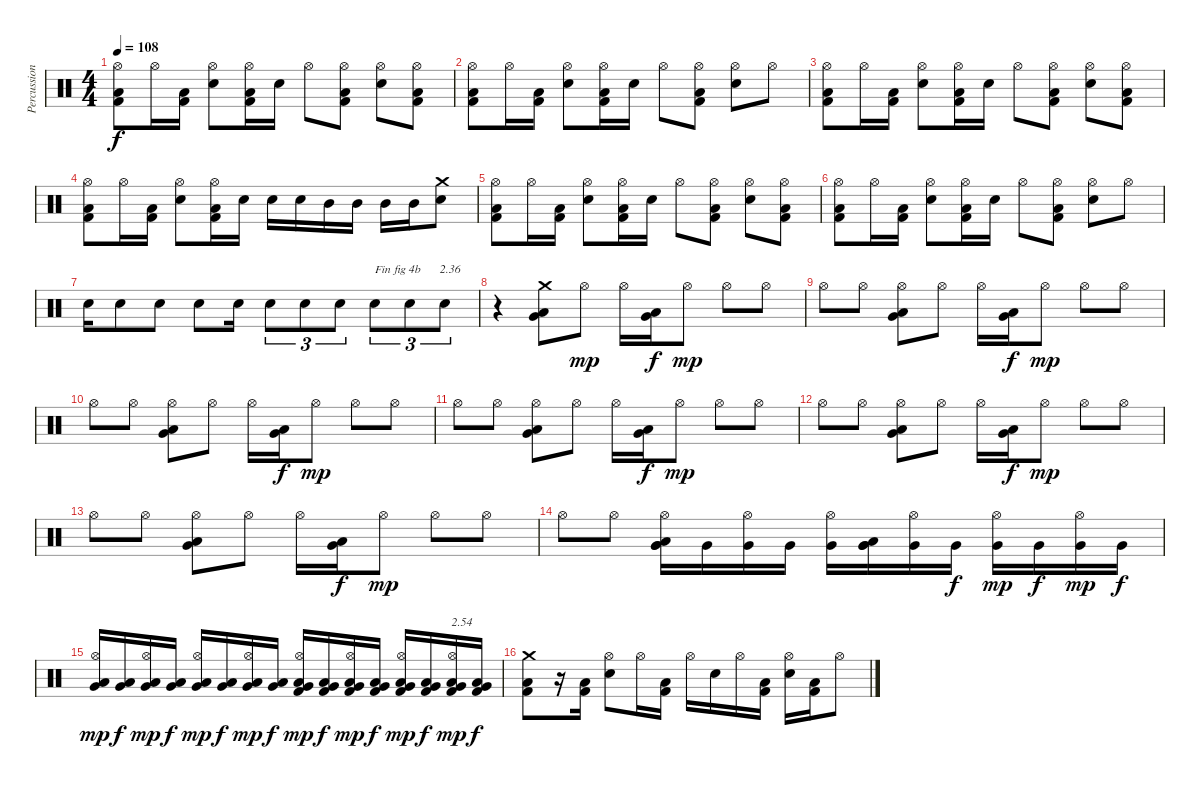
\track ("Percussions" "Percussion") {instrument percussion}
\staff {score}
\articulation defaults
\ts (4 4)
\tempo 108
\clef neutral
\ks c
("Kick (hit) 2" "Low Floor Tom (hit)" "Hi-Hat (open)").8{dy f} "Hi-Hat (open)".16 ("Kick (hit) 2" "Low Floor Tom (hit)").16 ("Snare (hit) 2" "Hi-Hat (open)").8 ("Kick (hit) 2" "Low Floor Tom (hit)" "Hi-Hat (open)").16 "Snare (hit) 2".16 "Hi-Hat (open)".8 ("Kick (hit) 2" "Low Floor Tom (hit)" "Hi-Hat (open)").8 ("Snare (hit) 2" "Hi-Hat (open)").8 ("Kick (hit) 2" "Low Floor Tom (hit)" "Hi-Hat (open)").8 |
("Kick (hit) 2" "Low Floor Tom (hit)" "Hi-Hat (open)").8 "Hi-Hat (open)".16 ("Kick (hit) 2" "Low Floor Tom (hit)").16 ("Snare (hit) 2" "Hi-Hat (open)").8 ("Kick (hit) 2" "Low Floor Tom (hit)" "Hi-Hat (open)").16 "Snare (hit) 2".16 "Hi-Hat (open)".8 ("Kick (hit) 2" "Low Floor Tom (hit)" "Hi-Hat (open)").8 ("Snare (hit) 2" "Hi-Hat (open)").8 "Hi-Hat (open)".8 |
("Kick (hit) 2" "Low Floor Tom (hit)" "Hi-Hat (open)").8 "Hi-Hat (open)".16 ("Kick (hit) 2" "Low Floor Tom (hit)").16 ("Snare (hit) 2" "Hi-Hat (open)").8 ("Kick (hit) 2" "Low Floor Tom (hit)" "Hi-Hat (open)").16 "Snare (hit) 2".16 "Hi-Hat (open)".8 ("Kick (hit) 2" "Low Floor Tom (hit)" "Hi-Hat (open)").8 ("Snare (hit) 2" "Hi-Hat (open)").8 ("Kick (hit) 2" "Low Floor Tom (hit)" "Hi-Hat (open)").8 |
("Kick (hit) 2" "Low Floor Tom (hit)" "Hi-Hat (open)").8 "Hi-Hat (open)".16 ("Kick (hit) 2" "Low Floor Tom (hit)").16 ("Snare (hit) 2" "Hi-Hat (open)").8 ("Kick (hit) 2" "Low Floor Tom (hit)" "Hi-Hat (open)").16 "Snare (hit) 2".16 "Snare (hit) 2".16 "Snare (hit) 2".16 "Mid Tom (hit)".16 "Mid Tom (hit)".16 "Mid Tom (hit)".16 "Mid Tom (hit)".16 ("Snare (hit) 2" "Crash medium (hit)").8 |
("Kick (hit) 2" "Low Floor Tom (hit)" "Hi-Hat (open)").8 "Hi-Hat (open)".16 ("Kick (hit) 2" "Low Floor Tom (hit)").16 ("Snare (hit) 2" "Hi-Hat (open)").8 ("Kick (hit) 2" "Low Floor Tom (hit)" "Hi-Hat (open)").16 "Snare (hit) 2".16 "Hi-Hat (open)".8 ("Kick (hit) 2" "Low Floor Tom (hit)" "Hi-Hat (open)").8 ("Snare (hit) 2" "Hi-Hat (open)").8 ("Kick (hit) 2" "Low Floor Tom (hit)" "Hi-Hat (open)").8 |
("Kick (hit) 2" "Low Floor Tom (hit)" "Hi-Hat (open)").8 "Hi-Hat (open)".16 ("Kick (hit) 2" "Low Floor Tom (hit)").16 ("Snare (hit) 2" "Hi-Hat (open)").8 ("Kick (hit) 2" "Low Floor Tom (hit)" "Hi-Hat (open)").16 "Snare (hit) 2".16 "Hi-Hat (open)".8 ("Kick (hit) 2" "Low Floor Tom (hit)" "Hi-Hat (open)").8 ("Snare (hit) 2" "Hi-Hat (open)").8 "Hi-Hat (open)".8 |
"Snare (hit) 2".16 "Snare (hit) 2".8 "Snare (hit) 2".8 "Snare (hit) 2".8 "Snare (hit) 2".16 "Snare (hit) 2".8{tu (3 2)} "Snare (hit) 2".8{tu (3 2)} "Snare (hit) 2".8{tu (3 2)} "Snare (hit) 2".8{tu (3 2) txt "Fin fig 4b"} "Snare (hit) 2".8{tu (3 2) txt "          2.36"} "Snare (hit) 2".8{tu (3 2)} |
r.4 ("Very Low Tom (hit)" "Low Tom (hit)" "Crash medium (hit)").8 "Hi-Hat (open)".8{dy mp} "Hi-Hat (open)".16 ("Very Low Tom (hit)" "Low Tom (hit)").16{dy f} "Hi-Hat (open)".8{dy mp} "Hi-Hat (open)".8 "Hi-Hat (open)".8 |
"Hi-Hat (open)".8 "Hi-Hat (open)".8 ("Very Low Tom (hit)" "Low Tom (hit)" "Hi-Hat (open)").8 "Hi-Hat (open)".8 "Hi-Hat (open)".16 ("Very Low Tom (hit)" "Low Tom (hit)").16{dy f} "Hi-Hat (open)".8{dy mp} "Hi-Hat (open)".8 "Hi-Hat (open)".8 |
"Hi-Hat (open)".8 "Hi-Hat (open)".8 ("Very Low Tom (hit)" "Low Tom (hit)" "Hi-Hat (open)").8 "Hi-Hat (open)".8 "Hi-Hat (open)".16 ("Very Low Tom (hit)" "Low Tom (hit)").16{dy f} "Hi-Hat (open)".8{dy mp} "Hi-Hat (open)".8 "Hi-Hat (open)".8 |
"Hi-Hat (open)".8 "Hi-Hat (open)".8 ("Very Low Tom (hit)" "Low Tom (hit)" "Hi-Hat (open)").8 "Hi-Hat (open)".8 "Hi-Hat (open)".16 ("Very Low Tom (hit)" "Low Tom (hit)").16{dy f} "Hi-Hat (open)".8{dy mp} "Hi-Hat (open)".8 "Hi-Hat (open)".8 |
"Hi-Hat (open)".8 "Hi-Hat (open)".8 ("Very Low Tom (hit)" "Low Tom (hit)" "Hi-Hat (open)").8 "Hi-Hat (open)".8 "Hi-Hat (open)".16 ("Very Low Tom (hit)" "Low Tom (hit)").16{dy f} "Hi-Hat (open)".8{dy mp} "Hi-Hat (open)".8 "Hi-Hat (open)".8 |
"Hi-Hat (open)".8 "Hi-Hat (open)".8 ("Very Low Tom (hit)" "Low Tom (hit)" "Hi-Hat (open)").8 "Hi-Hat (open)".8 "Hi-Hat (open)".16 ("Very Low Tom (hit)" "Low Tom (hit)").16{dy f} "Hi-Hat (open)".8{dy mp} "Hi-Hat (open)".8 "Hi-Hat (open)".8 |
"Hi-Hat (open)".8 "Hi-Hat (open)".8 ("Very Low Tom (hit)" "Low Tom (hit)" "Very Low Tom (hit)" "Hi-Hat (open)").16 "Very Low Tom (hit)".16 ("Very Low Tom (hit)" "Hi-Hat (open)").16 "Very Low Tom (hit)".16 ("Very Low Tom (hit)" "Hi-Hat (open)").16 ("Very Low Tom (hit)" "Low Tom (hit)" "Very Low Tom (hit)").16 ("Very Low Tom (hit)" "Hi-Hat (open)").16 "Very Low Tom (hit)".16{dy f} ("Very Low Tom (hit)" "Hi-Hat (open)").16{dy mp} "Very Low Tom (hit)".16{dy f} ("Very Low Tom (hit)" "Hi-Hat (open)").16{dy mp} "Very Low Tom (hit)".16{dy f} |
("Low Floor Tom (hit)" "Very Low Tom (hit)" "Hi-Hat (open)").16{dy mp} ("Low Floor Tom (hit)" "Very Low Tom (hit)").16{dy f} ("Low Floor Tom (hit)" "Very Low Tom (hit)" "Hi-Hat (open)").16{dy mp} ("Low Floor Tom (hit)" "Very Low Tom (hit)").16{dy f} ("Low Floor Tom (hit)" "Very Low Tom (hit)" "Hi-Hat (open)").16{dy mp} ("Low Floor Tom (hit)" "Very Low Tom (hit)").16{dy f} ("Low Floor Tom (hit)" "Very Low Tom (hit)" "Hi-Hat (open)").16{dy mp} ("Low Floor Tom (hit)" "Very Low Tom (hit)").16{dy f} ("Kick (hit) 2" "Low Floor Tom (hit)" "Very Low Tom (hit)" "Hi-Hat (open)").16{dy mp} ("Kick (hit) 2" "Low Floor Tom (hit)" "Very Low Tom (hit)").16{dy f} ("Kick (hit) 2" "Low Floor Tom (hit)" "Very Low Tom (hit)" "Hi-Hat (open)").16{dy mp} ("Kick (hit) 2" "Low Floor Tom (hit)" "Very Low Tom (hit)").16{dy f} ("Kick (hit) 2" "Low Floor Tom (hit)" "Very Low Tom (hit)" "Hi-Hat (open)").16{dy mp} ("Kick (hit) 2" "Low Floor Tom (hit)" "Very Low Tom (hit)").16{dy f} ("Kick (hit) 2" "Low Floor Tom (hit)" "Very Low Tom (hit)" "Hi-Hat (open)").16{txt "2.54" dy mp} ("Kick (hit) 2" "Low Floor Tom (hit)" "Very Low Tom (hit)").16{dy f} |
("Kick (hit) 2" "Low Floor Tom (hit)" "Crash medium (hit)").8 r.16 ("Kick (hit) 2" "Low Floor Tom (hit)").16 ("Snare (hit) 2" "Hi-Hat (open)").8 "Hi-Hat (open)".16 ("Kick (hit) 2" "Low Floor Tom (hit)").16 "Hi-Hat (open)".16 "Snare (hit) 2".16 "Hi-Hat (open)".16 ("Kick (hit) 2" "Low Floor Tom (hit)").16 ("Snare (hit) 2" "Hi-Hat (open)").16 ("Kick (hit) 2" "Low Floor Tom (hit)").16 "Hi-Hat (open)".8
